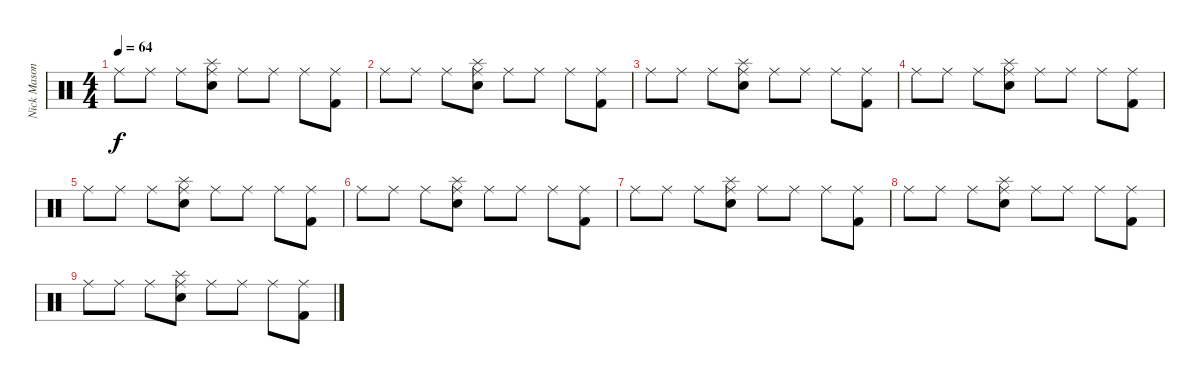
\track ("Nick Mason" "Nick Mason") {instrument percussion}
\staff {score}
\articulation defaults
\ts (4 4)
\tempo 64
\clef neutral
\ks c "Ride (middle)".8{dy f} "Ride (middle)".8 "Ride (middle)".8
("Ride (middle)" "Splash (hit)" "Electric Snare (hit)").8 "Ride (middle)".8 "Ride (middle)".8 "Ride (middle)".8 ("Ride (middle)" "Kick (hit) 2").8 |
"Ride (middle)".8{volume 7} "Ride (middle)".8 "Ride (middle)".8 ("Ride (middle)" "Splash (hit)" "Electric Snare (hit)").8 "Ride (middle)".8 "Ride (middle)".8 "Ride (middle)".8 ("Ride (middle)" "Kick (hit) 2").8 |
"Ride (middle)".8 "Ride (middle)".8 "Ride (middle)".8 ("Ride (middle)" "Splash (hit)" "Electric Snare (hit)").8 "Ride (middle)".8 "Ride (middle)".8 "Ride (middle)".8 ("Ride (middle)" "Kick (hit) 2").8 |
"Ride (middle)".8 "Ride (middle)".8 "Ride (middle)".8 ("Ride (middle)" "Splash (hit)" "Electric Snare (hit)").8 "Ride (middle)".8 "Ride (middle)".8 "Ride (middle)".8 ("Ride (middle)" "Kick (hit) 2").8 |
"Ride (middle)".8 "Ride (middle)".8 "Ride (middle)".8 ("Ride (middle)" "Splash (hit)" "Electric Snare (hit)").8 "Ride (middle)".8 "Ride (middle)".8 "Ride (middle)".8 ("Ride (middle)" "Kick (hit) 2").8 |
"Ride (middle)".8{volume 2} "Ride (middle)".8 "Ride (middle)".8 ("Ride (middle)" "Splash (hit)" "Electric Snare (hit)").8 "Ride (middle)".8 "Ride (middle)".8 "Ride (middle)".8 ("Ride (middle)" "Kick (hit) 2").8 |
"Ride (middle)".8 "Ride (middle)".8 "Ride (middle)".8 ("Ride (middle)" "Splash (hit)" "Electric Snare (hit)").8 "Ride (middle)".8 "Ride (middle)".8 "Ride (middle)".8 ("Ride (middle)" "Kick (hit) 2").8 |
"Ride (middle)".8 "Ride (middle)".8 "Ride (middle)".8 ("Ride (middle)" "Splash (hit)" "Electric Snare (hit)").8 "Ride (middle)".8 "Ride (middle)".8 "Ride (middle)".8 ("Ride (middle)" "Kick (hit) 2").8 |
"Ride (middle)".8 "Ride (middle)".8 "Ride (middle)".8 ("Ride (middle)" "Splash (hit)" "Electric Snare (hit)").8 "Ride (middle)".8 "Ride (middle)".8 "Ride (middle)".8 ("Ride (middle)" "Kick (hit) 2").8
